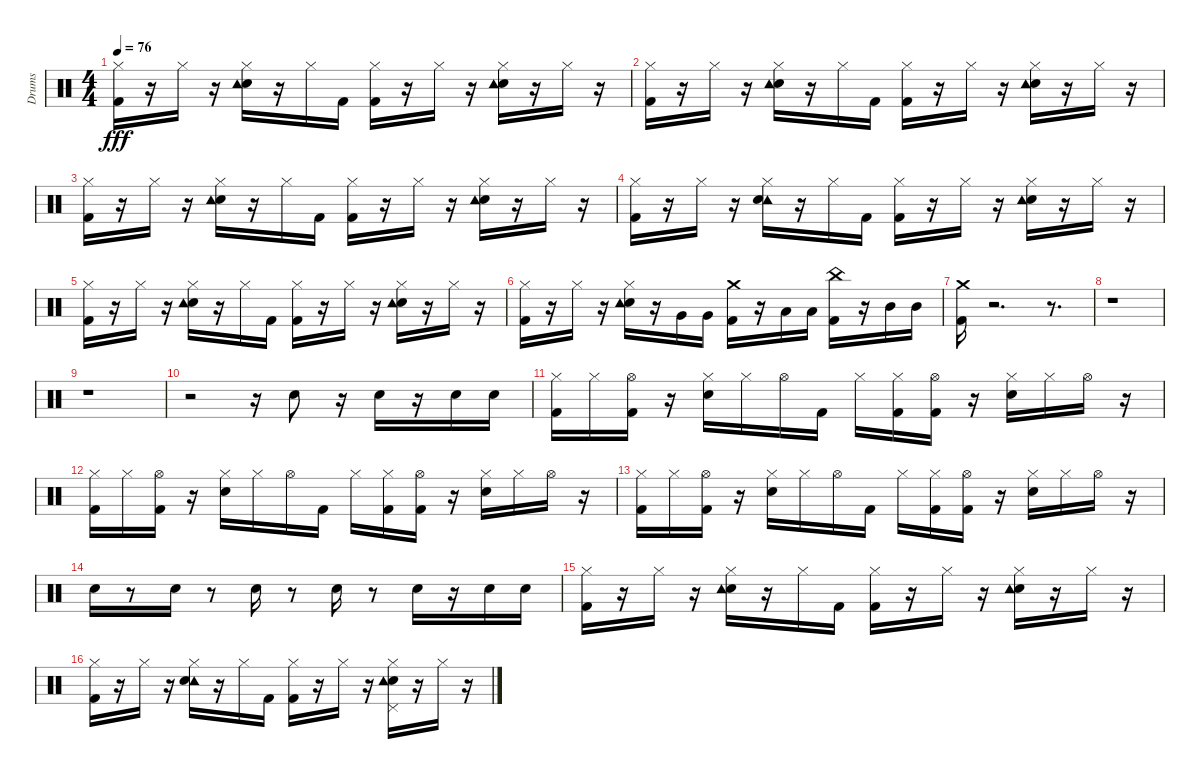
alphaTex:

\track ("Drums" "Drums") {instrument percussion}
\staff {score}
\articulation defaults
\ts (4 4)
\tempo 76
\clef neutral
\ks c
("Kick (hit) 2" "Hi-Hat (closed)").16{dy fff} r.16 "Hi-Hat (closed)".16 r.16 ("Electric Snare (hit)" "Hi-Hat (closed)" "Tambourine (hit)").16 r.16 "Hi-Hat (closed)".16 "Kick (hit) 2".16 ("Kick (hit) 2" "Hi-Hat (closed)").16 r.16 "Hi-Hat (closed)".16 r.16 ("Electric Snare (hit)" "Tambourine (hit)" "Hi-Hat (closed)").16 r.16 "Hi-Hat (closed)".16 r.16 |
("Kick (hit) 2" "Hi-Hat (closed)").16 r.16 "Hi-Hat (closed)".16 r.16 ("Electric Snare (hit)" "Hi-Hat (closed)" "Tambourine (hit)").16 r.16 "Hi-Hat (closed)".16 "Kick (hit) 2".16 ("Kick (hit) 2" "Hi-Hat (closed)").16 r.16 "Hi-Hat (closed)".16 r.16 ("Electric Snare (hit)" "Hi-Hat (closed)" "Tambourine (hit)").16 r.16 "Hi-Hat (closed)".16 r.16 |
("Hi-Hat (closed)" "Kick (hit) 2").16 r.16 "Hi-Hat (closed)".16 r.16 ("Electric Snare (hit)" "Tambourine (hit)" "Hi-Hat (closed)").16 r.16 "Hi-Hat (closed)".16 "Kick (hit) 2".16 ("Kick (hit) 2" "Hi-Hat (closed)").16 r.16 "Hi-Hat (closed)".16 r.16 ("Electric Snare (hit)" "Hi-Hat (closed)" "Tambourine (hit)").16 r.16 "Hi-Hat (closed)".16 r.16 |
("Kick (hit) 2" "Hi-Hat (closed)").16 r.16 "Hi-Hat (closed)".16 r.16 ("Tambourine (hit)" "Electric Snare (hit)" "Hi-Hat (closed)").16 r.16 "Hi-Hat (closed)".16 "Kick (hit) 2".16 ("Kick (hit) 2" "Hi-Hat (closed)").16 r.16 "Hi-Hat (closed)".16 r.16 ("Electric Snare (hit)" "Tambourine (hit)" "Hi-Hat (closed)").16 r.16 "Hi-Hat (closed)".16 r.16 |
("Kick (hit) 2" "Hi-Hat (closed)").16 r.16 "Hi-Hat (closed)".16 r.16 ("Electric Snare (hit)" "Tambourine (hit)" "Hi-Hat (closed)").16 r.16 "Hi-Hat (closed)".16 "Kick (hit) 2".16 ("Hi-Hat (closed)" "Kick (hit) 2").16 r.16 "Hi-Hat (closed)".16 r.16 ("Electric Snare (hit)" "Hi-Hat (closed)" "Tambourine (hit)").16 r.16 "Hi-Hat (closed)".16 r.16 |
("Kick (hit) 2" "Hi-Hat (closed)").16 r.16 "Hi-Hat (closed)".16 r.16 ("Hi-Hat (closed)" "Electric Snare (hit)" "Tambourine (hit)").16 r.16 "Very Low Tom (hit)".16 "Very Low Tom (hit)".16 ("Kick (hit) 2" "Crash medium (hit)").16 r.16 "Low Tom (hit)".16 "Low Tom (hit)".16 ("Kick (hit) 2" "China (hit)").16 r.16 "Mid Tom (hit)".16 "Mid Tom (hit)".16 |
("Kick (hit) 2" "Crash medium (hit)").16 r.2{d} r.8{d} |
r.1 |
r.1 |
r.2 r.16 "Electric Snare (hit)".8 r.16 "Electric Snare (hit)".16 r.16 "Electric Snare (hit)".16 "Electric Snare (hit)".16 |
("Kick (hit) 2" "Hi-Hat (closed)").16 "Hi-Hat (closed)".16 ("Kick (hit) 2" "Hi-Hat (open)").16 r.16 ("Electric Snare (hit)" "Hi-Hat (closed)").16 "Hi-Hat (closed)".16 "Hi-Hat (open)".16 "Kick (hit) 2".16 "Hi-Hat (closed)".16 ("Kick (hit) 2" "Hi-Hat (closed)").16 ("Kick (hit) 2" "Hi-Hat (open)").16 r.16 ("Electric Snare (hit)" "Hi-Hat (closed)").16 "Hi-Hat (closed)".16 "Hi-Hat (open)".16 r.16 |
("Kick (hit) 2" "Hi-Hat (closed)").16 "Hi-Hat (closed)".16 ("Kick (hit) 2" "Hi-Hat (open)").16 r.16 ("Electric Snare (hit)" "Hi-Hat (closed)").16 "Hi-Hat (closed)".16 "Hi-Hat (open)".16 "Kick (hit) 2".16 "Hi-Hat (closed)".16 ("Kick (hit) 2" "Hi-Hat (closed)").16 ("Kick (hit) 2" "Hi-Hat (open)").16 r.16 ("Electric Snare (hit)" "Hi-Hat (closed)").16 "Hi-Hat (closed)".16 "Hi-Hat (open)".16 r.16 |
("Kick (hit) 2" "Hi-Hat (closed)").16 "Hi-Hat (closed)".16 ("Kick (hit) 2" "Hi-Hat (open)").16 r.16 ("Electric Snare (hit)" "Hi-Hat (closed)").16 "Hi-Hat (closed)".16 "Hi-Hat (open)".16 "Kick (hit) 2".16 "Hi-Hat (closed)".16 ("Kick (hit) 2" "Hi-Hat (closed)").16 ("Kick (hit) 2" "Hi-Hat (open)").16 r.16 ("Electric Snare (hit)" "Hi-Hat (closed)").16 "Hi-Hat (closed)".16 "Hi-Hat (open)".16 r.16 |
"Electric Snare (hit)".16 r.8 "Electric Snare (hit)".16 r.8 "Electric Snare (hit)".16 r.8 "Electric Snare (hit)".16 r.8 "Electric Snare (hit)".16 r.16 "Electric Snare (hit)".16 "Electric Snare (hit)".16 |
("Kick (hit) 2" "Hi-Hat (closed)").16 r.16 "Hi-Hat (closed)".16 r.16 ("Hi-Hat (closed)" "Electric Snare (hit)" "Tambourine (hit)").16 r.16 "Hi-Hat (closed)".16 "Kick (hit) 2".16 ("Kick (hit) 2" "Hi-Hat (closed)").16 r.16 "Hi-Hat (closed)".16 r.16 ("Electric Snare (hit)" "Hi-Hat (closed)" "Tambourine (hit)").16 r.16 "Hi-Hat (closed)".16 r.16 |
("Hi-Hat (closed)" "Kick (hit) 2").16 r.16 "Hi-Hat (closed)".16 r.16 ("Hi-Hat (closed)" "Tambourine (hit)" "Electric Snare (hit)").16 r.16 "Hi-Hat (closed)".16 "Kick (hit) 2".16 ("Hi-Hat (closed)" "Kick (hit) 2").16 r.16 "Hi-Hat (closed)".16 r.16 ("Electric Snare (hit)" "Tambourine (hit)" "Hi-Hat (closed)" "Pedal Hi-Hat (hit)").16 r.16 "Hi-Hat (closed)".16 r.16
